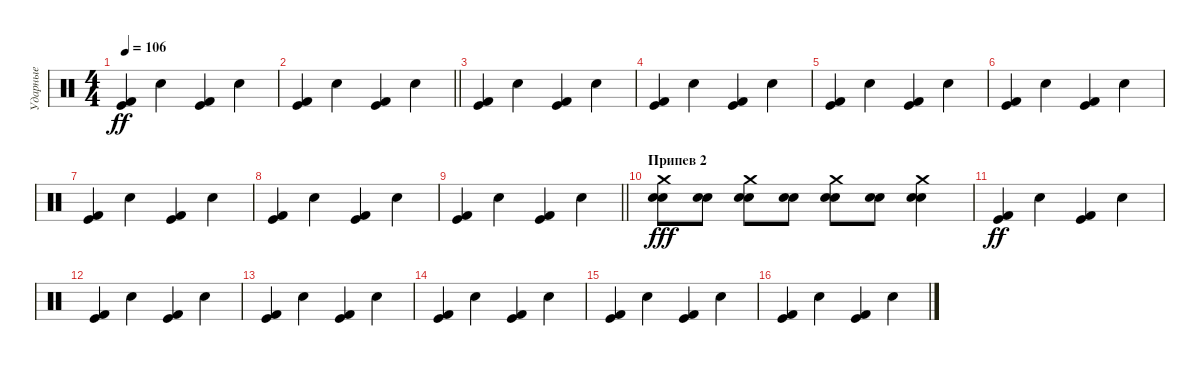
\track ("Ударные" "Ударные") {instrument percussion}
\staff {score}
\articulation defaults
\ts (4 4)
\tempo 106
\clef neutral
\ks c
("Kick (hit) 2" "Kick (hit)").4{dy ff} "Snare (hit) 2".4 ("Kick (hit) 2" "Kick (hit)").4 "Snare (hit) 2".4 |
\barLineRight lightlight
("Kick (hit) 2" "Kick (hit)").4 "Snare (hit) 2".4 ("Kick (hit) 2" "Kick (hit)").4 "Snare (hit) 2".4 |
("Kick (hit) 2" "Kick (hit)").4 "Snare (hit) 2".4 ("Kick (hit) 2" "Kick (hit)").4 "Snare (hit) 2".4 |
("Kick (hit) 2" "Kick (hit)").4 "Snare (hit) 2".4 ("Kick (hit) 2" "Kick (hit)").4 "Snare (hit) 2".4 |
("Kick (hit) 2" "Kick (hit)").4 "Snare (hit) 2".4 ("Kick (hit) 2" "Kick (hit)").4 "Snare (hit) 2".4 |
("Kick (hit) 2" "Kick (hit)").4 "Snare (hit) 2".4 ("Kick (hit) 2" "Kick (hit)").4 "Snare (hit) 2".4 |
("Kick (hit) 2" "Kick (hit)").4 "Snare (hit) 2".4 ("Kick (hit) 2" "Kick (hit)").4 "Snare (hit) 2".4 |
("Kick (hit) 2" "Kick (hit)").4 "Snare (hit) 2".4 ("Kick (hit) 2" "Kick (hit)").4 "Snare (hit) 2".4 |
\barLineRight lightlight
("Kick (hit) 2" "Kick (hit)").4 "Snare (hit) 2".4 ("Kick (hit) 2" "Kick (hit)").4 "Snare (hit) 2".4 |
\section ("" "Припев 2")
("Snare (hit) 2" "Electric Snare (hit)" "Crash medium (hit)").8{dy fff} ("Snare (hit) 2" "Electric Snare (hit)").8 ("Snare (hit) 2" "Electric Snare (hit)" "Crash medium (hit)").8 ("Snare (hit) 2" "Electric Snare (hit)").8 ("Snare (hit) 2" "Electric Snare (hit)" "Crash medium (hit)").8 ("Snare (hit) 2" "Electric Snare (hit)").8 ("Snare (hit) 2" "Electric Snare (hit)" "Crash medium (hit)").4 |
("Kick (hit) 2" "Kick (hit)").4{dy ff} "Snare (hit) 2".4 ("Kick (hit) 2" "Kick (hit)").4 "Snare (hit) 2".4 |
("Kick (hit) 2" "Kick (hit)").4 "Snare (hit) 2".4 ("Kick (hit) 2" "Kick (hit)").4 "Snare (hit) 2".4 |
("Kick (hit) 2" "Kick (hit)").4 "Snare (hit) 2".4 ("Kick (hit) 2" "Kick (hit)").4 "Snare (hit) 2".4 |
("Kick (hit) 2" "Kick (hit)").4 "Snare (hit) 2".4 ("Kick (hit) 2" "Kick (hit)").4 "Snare (hit) 2".4 |
("Kick (hit) 2" "Kick (hit)").4 "Snare (hit) 2".4 ("Kick (hit) 2" "Kick (hit)").4 "Snare (hit) 2".4 |
("Kick (hit) 2" "Kick (hit)").4 "Snare (hit) 2".4 ("Kick (hit) 2" "Kick (hit)").4 "Snare (hit) 2".4
